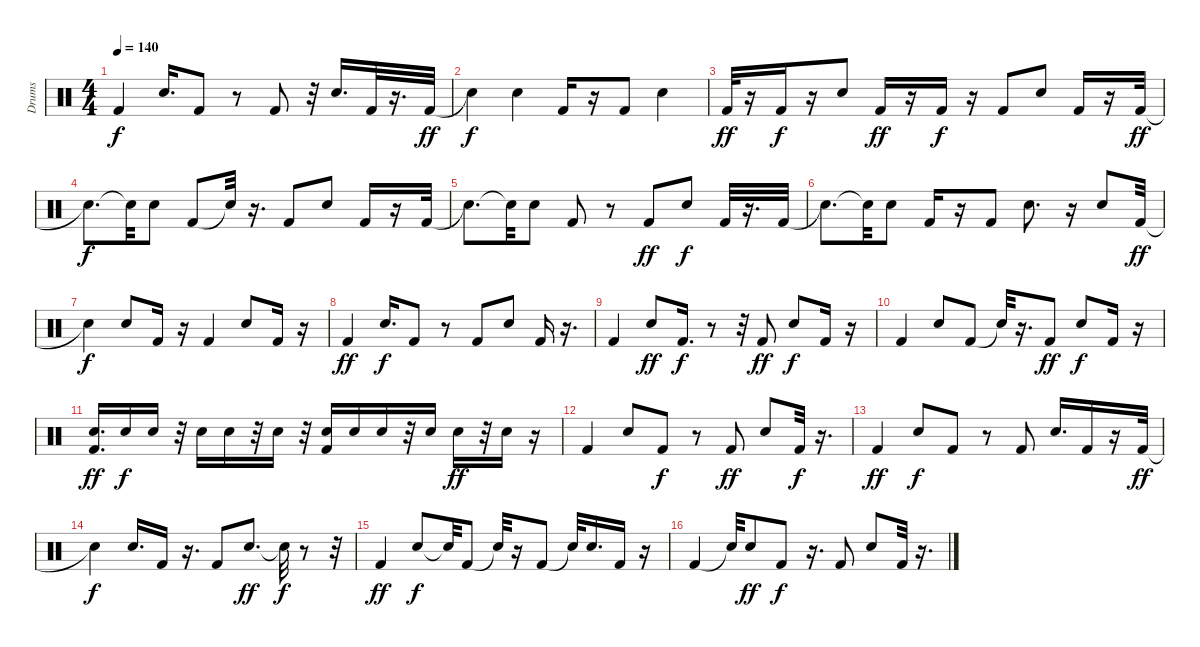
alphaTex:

\track ("Drums" "Drums") {instrument percussion}
\staff {score}
\articulation defaults
\ts (4 4)
\tempo 140
\clef neutral
\ks c "Kick (hit) 2".4{dy f} "Snare (hit) 2".16{d} "Kick (hit) 2".8
r.8 "Kick (hit) 2".8 r.32 "Snare (hit) 2".16{d} "Kick (hit) 2".32 r.16{d} "Kick (hit) 2".32{dy ff} |
"Snare (hit)"{t}.4{dy f} "Snare (hit) 2".4 "Kick (hit) 2".16 r.16 "Kick (hit) 2".8 "Snare (hit) 2".4 |
"Kick (hit) 2".32{dy ff} r.16 "Kick (hit) 2".16{dy f} r.16 "Snare (hit) 2".8 "Kick (hit) 2".16{dy ff} r.16 "Kick (hit) 2".16{dy f} r.16 "Kick (hit) 2".8 "Snare (hit) 2".8 "Kick (hit) 2".16 r.16 "Kick (hit) 2".32{dy ff} |
"Snare (hit)"{t}.8{d dy f} "Snare (hit)"{t}.32 "Snare (hit) 2".8 "Kick (hit) 2".8 "Snare (hit)"{t}.32 r.16{d} "Kick (hit) 2".8 "Snare (hit) 2".8 "Kick (hit) 2".16 r.16 "Kick (hit) 2".32 |
"Snare (hit)"{t}.8{d} "Snare (hit)"{t}.32 "Snare (hit) 2".8 "Kick (hit) 2".8 r.8 "Kick (hit) 2".8{dy ff} "Snare (hit) 2".8{dy f} "Kick (hit) 2".32 r.16{d} "Kick (hit) 2".32 |
"Snare (hit)"{t}.8{d} "Snare (hit)"{t}.32 "Snare (hit) 2".8 "Kick (hit) 2".16 r.16 "Kick (hit) 2".8 "Snare (hit) 2".8{d} r.16 "Snare (hit) 2".8 "Kick (hit) 2".32{dy ff} |
"Snare (hit)"{t}.4{dy f} "Snare (hit) 2".8 "Kick (hit) 2".16 r.16 "Kick (hit) 2".4 "Snare (hit) 2".8 "Kick (hit) 2".16 r.16 |
"Kick (hit) 2".4{dy ff} "Snare (hit) 2".16{d dy f} "Kick (hit) 2".8 r.8 "Kick (hit) 2".8 "Snare (hit) 2".8 "Kick (hit) 2".16 r.16{d} |
"Kick (hit) 2".4 "Snare (hit) 2".8{dy ff} "Kick (hit) 2".16{d dy f} r.8 r.32 "Kick (hit) 2".8{dy ff} "Snare (hit) 2".8{dy f} "Kick (hit) 2".16 r.16 |
"Kick (hit) 2".4 "Snare (hit) 2".8 "Kick (hit) 2".8 "Snare (hit)"{t}.32 r.16{d} "Kick (hit) 2".8{dy ff} "Snare (hit) 2".8{dy f} "Kick (hit) 2".16 r.16 |
("Kick (hit) 2" "Electric Snare (hit)").16{d dy ff} "Snare (hit) 2".16{dy f} "Electric Snare (hit)".16 r.32 "Snare (hit) 2".16 "Electric Snare (hit)".16 r.32 "Snare (hit) 2".16 r.32 ("Electric Snare (hit)" "Kick (hit) 2").16 "Snare (hit) 2".16 "Electric Snare (hit)".16 r.32 "Snare (hit) 2".16 "Electric Snare (hit)".16{dy ff} r.32 "Snare (hit) 2".16 r.16 |
"Kick (hit) 2".4 "Snare (hit) 2".8 "Kick (hit) 2".8{dy f} r.8 "Kick (hit) 2".8{dy ff} "Snare (hit) 2".8 "Kick (hit) 2".32{dy f} r.16{d} |
"Kick (hit) 2".4{dy ff} "Snare (hit) 2".8{dy f} "Kick (hit) 2".8 r.8 "Kick (hit) 2".8 "Snare (hit) 2".16{d} "Kick (hit) 2".16 r.16 "Kick (hit) 2".32{dy ff} |
"Snare (hit)"{t}.4{dy f} "Snare (hit) 2".16{d} "Kick (hit) 2".16 r.16{d} "Kick (hit) 2".8 "Snare (hit) 2".8{d dy ff} "Snare (hit)"{t}.32{dy f} r.8 r.32 |
"Kick (hit) 2".4{dy ff} "Snare (hit) 2".8{dy f} "Snare (hit)"{t}.32 "Kick (hit) 2".8 "Snare (hit)"{t}.32 r.16 "Kick (hit) 2".8 "Snare (hit)"{t}.32 "Snare (hit) 2".16{d} "Kick (hit) 2".16 r.16 |
"Kick (hit) 2".4 "Snare (hit)"{t}.32 "Snare (hit) 2".8{dy ff} "Kick (hit) 2".8{dy f} r.16{d} "Kick (hit) 2".8 "Snare (hit) 2".8 "Kick (hit) 2".32 r.16{d}
